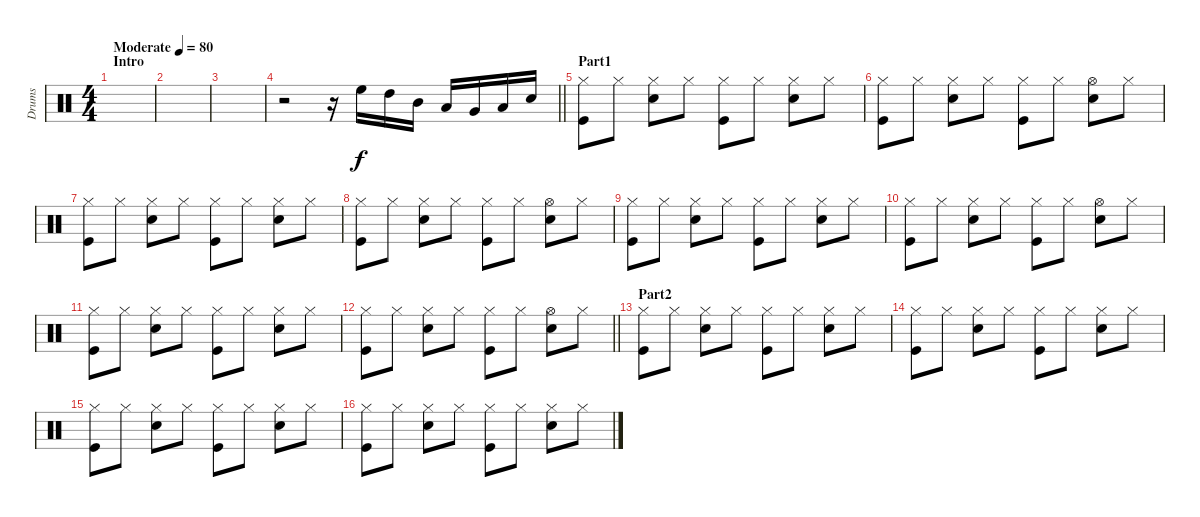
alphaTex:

\track ("Drums" "Drums") {instrument percussion}
\staff {score}
\articulation defaults
\ts (4 4)
\section ("" "Intro")
\tempo (80 "Moderate")
\clef neutral
\ks c
|
|
|
\barLineRight lightlight
r.2 r.16 "High Floor Tom (hit)".16 "High Tom (hit)".16 "Mid Tom (hit)".16 "Low Tom (hit)".16 "Very Low Tom (hit)".16 "Low Floor Tom (hit)".16 "Snare (hit) 2".16 |
\section ("" "Part1")
("Hi-Hat (closed)" "Kick (hit)").8 "Hi-Hat (closed)".8 ("Hi-Hat (closed)" "Snare (hit) 2").8 "Hi-Hat (closed)".8 ("Hi-Hat (closed)" "Kick (hit)").8 "Hi-Hat (closed)".8 ("Hi-Hat (closed)" "Snare (hit) 2").8 "Hi-Hat (closed)".8 |
("Hi-Hat (closed)" "Kick (hit)").8 "Hi-Hat (closed)".8 ("Hi-Hat (closed)" "Snare (hit) 2").8 "Hi-Hat (closed)".8 ("Hi-Hat (closed)" "Kick (hit)").8 "Hi-Hat (closed)".8 ("Hi-Hat (open)" "Snare (hit) 2").8 "Hi-Hat (closed)".8 |
("Hi-Hat (closed)" "Kick (hit)").8 "Hi-Hat (closed)".8 ("Hi-Hat (closed)" "Snare (hit) 2").8 "Hi-Hat (closed)".8 ("Hi-Hat (closed)" "Kick (hit)").8 "Hi-Hat (closed)".8 ("Hi-Hat (closed)" "Snare (hit) 2").8 "Hi-Hat (closed)".8 |
("Hi-Hat (closed)" "Kick (hit)").8 "Hi-Hat (closed)".8 ("Hi-Hat (closed)" "Snare (hit) 2").8 "Hi-Hat (closed)".8 ("Hi-Hat (closed)" "Kick (hit)").8 "Hi-Hat (closed)".8 ("Hi-Hat (open)" "Snare (hit) 2").8 "Hi-Hat (closed)".8 |
("Hi-Hat (closed)" "Kick (hit)").8 "Hi-Hat (closed)".8 ("Hi-Hat (closed)" "Snare (hit) 2").8 "Hi-Hat (closed)".8 ("Hi-Hat (closed)" "Kick (hit)").8 "Hi-Hat (closed)".8 ("Hi-Hat (closed)" "Snare (hit) 2").8 "Hi-Hat (closed)".8 |
("Hi-Hat (closed)" "Kick (hit)").8 "Hi-Hat (closed)".8 ("Hi-Hat (closed)" "Snare (hit) 2").8 "Hi-Hat (closed)".8 ("Hi-Hat (closed)" "Kick (hit)").8 "Hi-Hat (closed)".8 ("Hi-Hat (open)" "Snare (hit) 2").8 "Hi-Hat (closed)".8 |
("Hi-Hat (closed)" "Kick (hit)").8 "Hi-Hat (closed)".8 ("Hi-Hat (closed)" "Snare (hit) 2").8 "Hi-Hat (closed)".8 ("Hi-Hat (closed)" "Kick (hit)").8 "Hi-Hat (closed)".8 ("Hi-Hat (closed)" "Snare (hit) 2").8 "Hi-Hat (closed)".8 |
\barLineRight lightlight
("Hi-Hat (closed)" "Kick (hit)").8 "Hi-Hat (closed)".8 ("Hi-Hat (closed)" "Snare (hit) 2").8 "Hi-Hat (closed)".8 ("Hi-Hat (closed)" "Kick (hit)").8 "Hi-Hat (closed)".8 ("Hi-Hat (open)" "Snare (hit) 2").8 "Hi-Hat (closed)".8 |
\section ("" "Part2")
("Hi-Hat (closed)" "Kick (hit)").8 "Hi-Hat (closed)".8 ("Hi-Hat (closed)" "Snare (hit) 2").8 "Hi-Hat (closed)".8 ("Hi-Hat (closed)" "Kick (hit)").8 "Hi-Hat (closed)".8 ("Hi-Hat (closed)" "Snare (hit) 2").8 "Hi-Hat (closed)".8 |
("Hi-Hat (closed)" "Kick (hit)").8 "Hi-Hat (closed)".8 ("Hi-Hat (closed)" "Snare (hit) 2").8 "Hi-Hat (closed)".8 ("Hi-Hat (closed)" "Kick (hit)").8 "Hi-Hat (closed)".8 ("Hi-Hat (closed)" "Snare (hit) 2").8 "Hi-Hat (closed)".8 |
("Hi-Hat (closed)" "Kick (hit)").8 "Hi-Hat (closed)".8 ("Hi-Hat (closed)" "Snare (hit) 2").8 "Hi-Hat (closed)".8 ("Hi-Hat (closed)" "Kick (hit)").8 "Hi-Hat (closed)".8 ("Hi-Hat (closed)" "Snare (hit) 2").8 "Hi-Hat (closed)".8 |
("Hi-Hat (closed)" "Kick (hit)").8 "Hi-Hat (closed)".8 ("Hi-Hat (closed)" "Snare (hit) 2").8 "Hi-Hat (closed)".8 ("Hi-Hat (closed)" "Kick (hit)").8 "Hi-Hat (closed)".8 ("Hi-Hat (closed)" "Snare (hit) 2").8 "Hi-Hat (closed)".8
